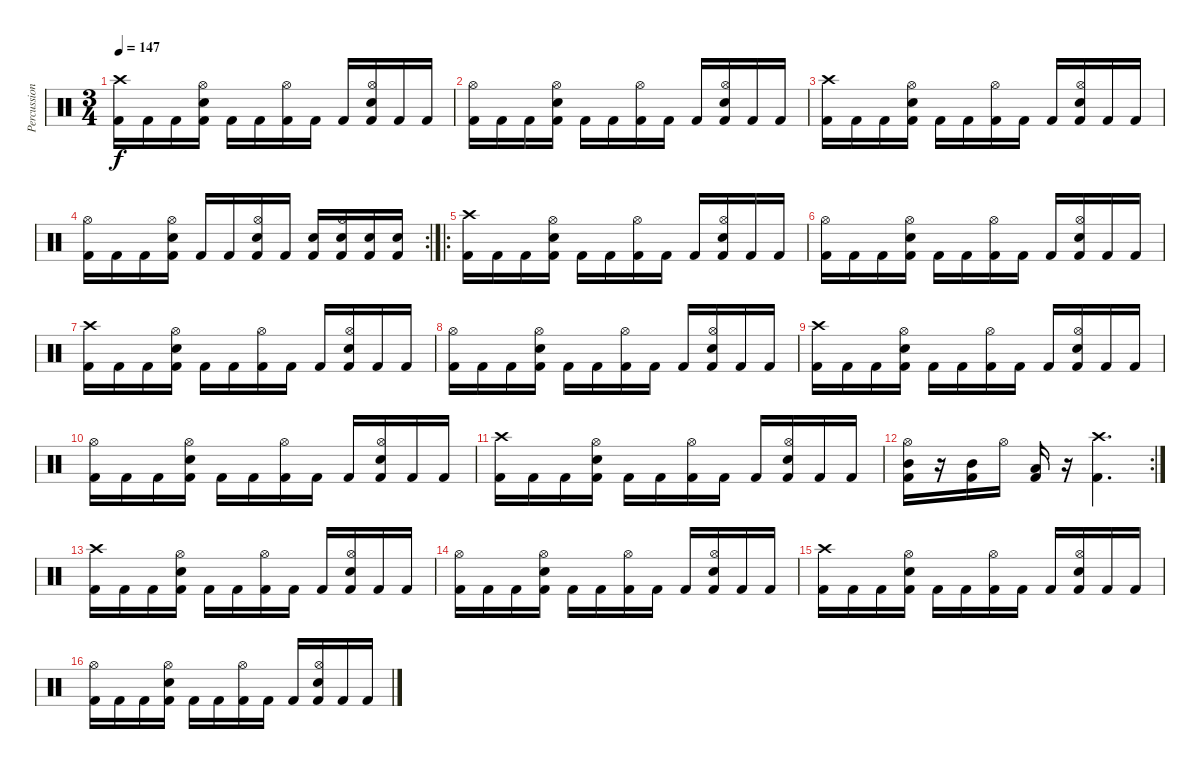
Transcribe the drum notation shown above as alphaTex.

\track ("Percussion" "Percussion") {instrument percussion}
\staff {score}
\articulation defaults
\ts (3 4)
\tempo 147
\clef neutral
\ks c
("Crash high (hit)" "Kick (hit) 2").16{dy f} "Kick (hit) 2".16 "Kick (hit) 2".16 ("Hi-Hat (open)" "Electric Snare (hit)" "Kick (hit) 2").16 "Kick (hit) 2".16 "Kick (hit) 2".16 ("Hi-Hat (open)" "Kick (hit) 2").16 "Kick (hit) 2".16 "Kick (hit) 2".16 ("Hi-Hat (open)" "Electric Snare (hit)" "Kick (hit) 2").16 "Kick (hit) 2".16 "Kick (hit) 2".16 |
("Hi-Hat (open)" "Kick (hit) 2").16 "Kick (hit) 2".16 "Kick (hit) 2".16 ("Hi-Hat (open)" "Electric Snare (hit)" "Kick (hit) 2").16 "Kick (hit) 2".16 "Kick (hit) 2".16 ("Hi-Hat (open)" "Kick (hit) 2").16 "Kick (hit) 2".16 "Kick (hit) 2".16 ("Hi-Hat (open)" "Electric Snare (hit)" "Kick (hit) 2").16 "Kick (hit) 2".16 "Kick (hit) 2".16 |
("Crash high (hit)" "Kick (hit) 2").16 "Kick (hit) 2".16 "Kick (hit) 2".16 ("Hi-Hat (open)" "Electric Snare (hit)" "Kick (hit) 2").16 "Kick (hit) 2".16 "Kick (hit) 2".16 ("Hi-Hat (open)" "Kick (hit) 2").16 "Kick (hit) 2".16 "Kick (hit) 2".16 ("Hi-Hat (open)" "Electric Snare (hit)" "Kick (hit) 2").16 "Kick (hit) 2".16 "Kick (hit) 2".16 |
\rc 2
("Hi-Hat (open)" "Kick (hit) 2").16 "Kick (hit) 2".16 "Kick (hit) 2".16 ("Hi-Hat (open)" "Electric Snare (hit)" "Kick (hit) 2").16 "Kick (hit) 2".16 "Kick (hit) 2".16 ("Hi-Hat (open)" "Electric Snare (hit)" "Kick (hit) 2").16 "Kick (hit) 2".16 ("Electric Snare (hit)" "Kick (hit) 2").16 ("Hi-Hat (open)" "Electric Snare (hit)" "Kick (hit) 2").16 ("Electric Snare (hit)" "Kick (hit) 2").16 ("Electric Snare (hit)" "Kick (hit) 2").16 |
\ro
("Crash high (hit)" "Kick (hit) 2").16 "Kick (hit) 2".16 "Kick (hit) 2".16 ("Hi-Hat (open)" "Electric Snare (hit)" "Kick (hit) 2").16 "Kick (hit) 2".16 "Kick (hit) 2".16 ("Hi-Hat (open)" "Kick (hit) 2").16 "Kick (hit) 2".16 "Kick (hit) 2".16 ("Hi-Hat (open)" "Electric Snare (hit)" "Kick (hit) 2").16 "Kick (hit) 2".16 "Kick (hit) 2".16 |
("Hi-Hat (open)" "Kick (hit) 2").16 "Kick (hit) 2".16 "Kick (hit) 2".16 ("Hi-Hat (open)" "Electric Snare (hit)" "Kick (hit) 2").16 "Kick (hit) 2".16 "Kick (hit) 2".16 ("Hi-Hat (open)" "Kick (hit) 2").16 "Kick (hit) 2".16 "Kick (hit) 2".16 ("Hi-Hat (open)" "Electric Snare (hit)" "Kick (hit) 2").16 "Kick (hit) 2".16 "Kick (hit) 2".16 |
("Crash high (hit)" "Kick (hit) 2").16 "Kick (hit) 2".16 "Kick (hit) 2".16 ("Hi-Hat (open)" "Electric Snare (hit)" "Kick (hit) 2").16 "Kick (hit) 2".16 "Kick (hit) 2".16 ("Hi-Hat (open)" "Kick (hit) 2").16 "Kick (hit) 2".16 "Kick (hit) 2".16 ("Hi-Hat (open)" "Electric Snare (hit)" "Kick (hit) 2").16 "Kick (hit) 2".16 "Kick (hit) 2".16 |
("Hi-Hat (open)" "Kick (hit) 2").16 "Kick (hit) 2".16 "Kick (hit) 2".16 ("Hi-Hat (open)" "Electric Snare (hit)" "Kick (hit) 2").16 "Kick (hit) 2".16 "Kick (hit) 2".16 ("Hi-Hat (open)" "Kick (hit) 2").16 "Kick (hit) 2".16 "Kick (hit) 2".16 ("Hi-Hat (open)" "Electric Snare (hit)" "Kick (hit) 2").16 "Kick (hit) 2".16 "Kick (hit) 2".16 |
("Crash high (hit)" "Kick (hit) 2").16 "Kick (hit) 2".16 "Kick (hit) 2".16 ("Hi-Hat (open)" "Electric Snare (hit)" "Kick (hit) 2").16 "Kick (hit) 2".16 "Kick (hit) 2".16 ("Hi-Hat (open)" "Kick (hit) 2").16 "Kick (hit) 2".16 "Kick (hit) 2".16 ("Hi-Hat (open)" "Electric Snare (hit)" "Kick (hit) 2").16 "Kick (hit) 2".16 "Kick (hit) 2".16 |
("Hi-Hat (open)" "Kick (hit) 2").16 "Kick (hit) 2".16 "Kick (hit) 2".16 ("Hi-Hat (open)" "Electric Snare (hit)" "Kick (hit) 2").16 "Kick (hit) 2".16 "Kick (hit) 2".16 ("Hi-Hat (open)" "Kick (hit) 2").16 "Kick (hit) 2".16 "Kick (hit) 2".16 ("Hi-Hat (open)" "Electric Snare (hit)" "Kick (hit) 2").16 "Kick (hit) 2".16 "Kick (hit) 2".16 |
("Crash high (hit)" "Kick (hit) 2").16 "Kick (hit) 2".16 "Kick (hit) 2".16 ("Hi-Hat (open)" "Electric Snare (hit)" "Kick (hit) 2").16 "Kick (hit) 2".16 "Kick (hit) 2".16 ("Hi-Hat (open)" "Kick (hit) 2").16 "Kick (hit) 2".16 "Kick (hit) 2".16 ("Hi-Hat (open)" "Electric Snare (hit)" "Kick (hit) 2").16 "Kick (hit) 2".16 "Kick (hit) 2".16 |
\rc 2
("Hi-Hat (open)" "Mid Tom (hit)" "Kick (hit) 2").16 r.16 ("Mid Tom (hit)" "Kick (hit) 2").16 "Hi-Hat (open)".16 ("Low Tom (hit)" "Kick (hit) 2").16 r.16 ("Crash high (hit)" "Kick (hit) 2").4{d} |
("Crash high (hit)" "Kick (hit) 2").16 "Kick (hit) 2".16 "Kick (hit) 2".16 ("Hi-Hat (open)" "Electric Snare (hit)" "Kick (hit) 2").16 "Kick (hit) 2".16 "Kick (hit) 2".16 ("Hi-Hat (open)" "Kick (hit) 2").16 "Kick (hit) 2".16 "Kick (hit) 2".16 ("Hi-Hat (open)" "Electric Snare (hit)" "Kick (hit) 2").16 "Kick (hit) 2".16 "Kick (hit) 2".16 |
("Hi-Hat (open)" "Kick (hit) 2").16 "Kick (hit) 2".16 "Kick (hit) 2".16 ("Hi-Hat (open)" "Electric Snare (hit)" "Kick (hit) 2").16 "Kick (hit) 2".16 "Kick (hit) 2".16 ("Hi-Hat (open)" "Kick (hit) 2").16 "Kick (hit) 2".16 "Kick (hit) 2".16 ("Hi-Hat (open)" "Electric Snare (hit)" "Kick (hit) 2").16 "Kick (hit) 2".16 "Kick (hit) 2".16 |
("Crash high (hit)" "Kick (hit) 2").16 "Kick (hit) 2".16 "Kick (hit) 2".16 ("Hi-Hat (open)" "Electric Snare (hit)" "Kick (hit) 2").16 "Kick (hit) 2".16 "Kick (hit) 2".16 ("Hi-Hat (open)" "Kick (hit) 2").16 "Kick (hit) 2".16 "Kick (hit) 2".16 ("Hi-Hat (open)" "Electric Snare (hit)" "Kick (hit) 2").16 "Kick (hit) 2".16 "Kick (hit) 2".16 |
("Hi-Hat (open)" "Kick (hit) 2").16 "Kick (hit) 2".16 "Kick (hit) 2".16 ("Hi-Hat (open)" "Electric Snare (hit)" "Kick (hit) 2").16 "Kick (hit) 2".16 "Kick (hit) 2".16 ("Hi-Hat (open)" "Kick (hit) 2").16 "Kick (hit) 2".16 "Kick (hit) 2".16 ("Hi-Hat (open)" "Electric Snare (hit)" "Kick (hit) 2").16 "Kick (hit) 2".16 "Kick (hit) 2".16
